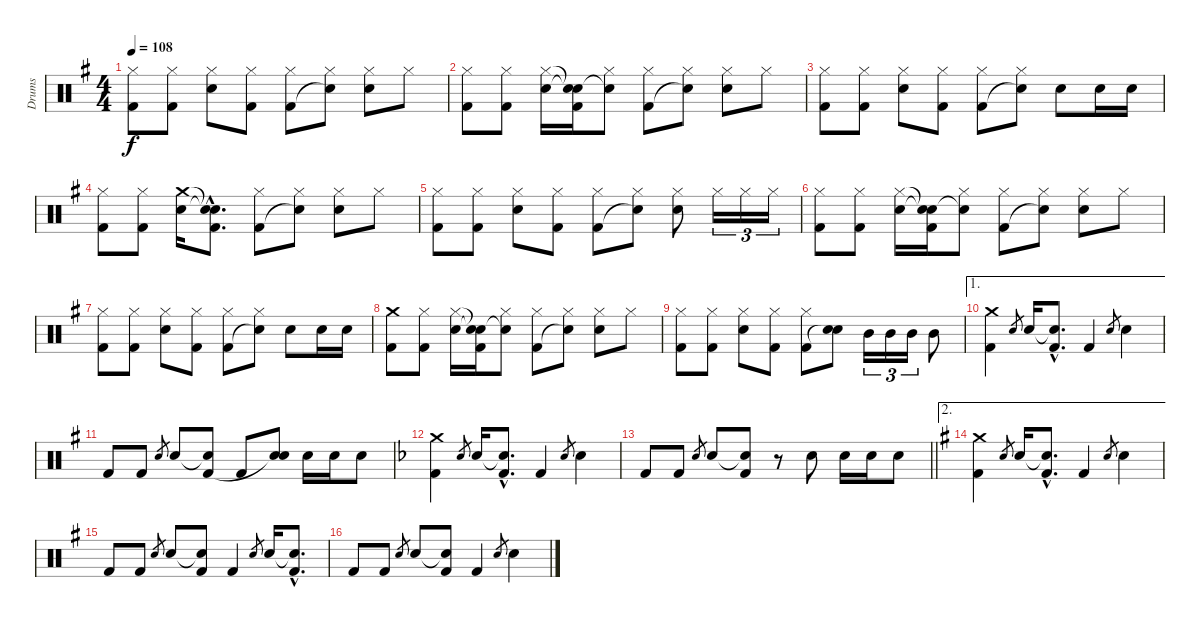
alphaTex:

\track ("Drums" "Drums") {instrument percussion}
\staff {score}
\articulation defaults
\ts (4 4)
\tempo 108
\clef neutral
\ks eminor
("Hi-Hat (closed)" "Kick (hit) 2").8{dy f} ("Hi-Hat (closed)" "Kick (hit) 2").8 ("Hi-Hat (closed)" "Electric Snare (hit)").8 ("Hi-Hat (closed)" "Kick (hit) 2").8 ("Hi-Hat (closed)" "Kick (hit) 2").8 ("Hi-Hat (closed)" "Snare (hit)"{t}).8 ("Hi-Hat (closed)" "Electric Snare (hit)").8 "Hi-Hat (closed)".8 |
("Hi-Hat (closed)" "Kick (hit) 2").8 ("Hi-Hat (closed)" "Kick (hit) 2").8 ("Hi-Hat (closed)" "Electric Snare (hit)").16 ("Snare (hit)"{t} "Snare (hit)"{t} "Kick (hit) 2").16 ("Hi-Hat (closed)" "Snare (hit)"{t}).8 ("Hi-Hat (closed)" "Kick (hit) 2").8 ("Hi-Hat (closed)" "Snare (hit)"{t}).8 ("Hi-Hat (closed)" "Electric Snare (hit)").8 "Hi-Hat (closed)".8 |
("Hi-Hat (closed)" "Kick (hit) 2").8 ("Hi-Hat (closed)" "Kick (hit) 2").8 ("Hi-Hat (closed)" "Electric Snare (hit)").8 ("Hi-Hat (closed)" "Kick (hit) 2").8 ("Hi-Hat (closed)" "Kick (hit) 2").8 ("Hi-Hat (closed)" "Snare (hit)"{t}).8 "Electric Snare (hit)".8 "Electric Snare (hit)".16 "Electric Snare (hit)".16 |
("Hi-Hat (closed)" "Kick (hit) 2").8 ("Hi-Hat (closed)" "Kick (hit) 2").8 ("Crash medium (hit)" "Electric Snare (hit)").16 ("Snare (hit)"{hac t} "Snare (hit)"{hac t} "Kick (hit) 2"{hac}).8{d} ("Hi-Hat (closed)" "Kick (hit) 2").8 ("Hi-Hat (closed)" "Snare (hit)"{t}).8 ("Hi-Hat (closed)" "Electric Snare (hit)").8 "Hi-Hat (closed)".8 |
("Hi-Hat (closed)" "Kick (hit) 2").8 ("Hi-Hat (closed)" "Kick (hit) 2").8 ("Hi-Hat (closed)" "Electric Snare (hit)").8 ("Hi-Hat (closed)" "Kick (hit) 2").8 ("Hi-Hat (closed)" "Kick (hit) 2").8 ("Hi-Hat (closed)" "Snare (hit)"{t}).8 ("Hi-Hat (closed)" "Electric Snare (hit)").8 "Hi-Hat (closed)".16{tu (3 2)} "Hi-Hat (closed)".16{tu (3 2)} "Hi-Hat (closed)".16{tu (3 2)} |
("Hi-Hat (closed)" "Kick (hit) 2").8 ("Hi-Hat (closed)" "Kick (hit) 2").8 ("Hi-Hat (closed)" "Electric Snare (hit)").16 ("Snare (hit)"{t} "Snare (hit)"{t} "Kick (hit) 2").16 ("Hi-Hat (closed)" "Snare (hit)"{t}).8 ("Hi-Hat (closed)" "Kick (hit) 2").8 ("Hi-Hat (closed)" "Snare (hit)"{t}).8 ("Hi-Hat (closed)" "Electric Snare (hit)").8 "Hi-Hat (closed)".8 |
("Hi-Hat (closed)" "Kick (hit) 2").8 ("Hi-Hat (closed)" "Kick (hit) 2").8 ("Hi-Hat (closed)" "Electric Snare (hit)").8 ("Hi-Hat (closed)" "Kick (hit) 2").8 ("Hi-Hat (closed)" "Kick (hit) 2").8 ("Hi-Hat (closed)" "Snare (hit)"{t}).8 "Electric Snare (hit)".8 "Electric Snare (hit)".16 "Electric Snare (hit)".16 |
("Crash medium (hit)" "Kick (hit) 2").8 ("Hi-Hat (closed)" "Kick (hit) 2").8 ("Hi-Hat (closed)" "Electric Snare (hit)").16 ("Snare (hit)"{t} "Snare (hit)"{t} "Kick (hit) 2").16 ("Hi-Hat (closed)" "Snare (hit)"{t}).8 ("Hi-Hat (closed)" "Kick (hit) 2").8 ("Hi-Hat (closed)" "Snare (hit)"{t}).8 ("Hi-Hat (closed)" "Electric Snare (hit)").8 "Hi-Hat (closed)".8 |
("Hi-Hat (closed)" "Kick (hit) 2").8 ("Hi-Hat (closed)" "Kick (hit) 2").8 ("Hi-Hat (closed)" "Electric Snare (hit)").8 ("Hi-Hat (closed)" "Kick (hit) 2").8 ("Hi-Hat (closed)" "Kick (hit) 2").8 ("Electric Snare (hit)" "Snare (hit)"{t}).8 "Mid Tom (hit)".16{tu (3 2)} "Mid Tom (hit)".16{tu (3 2)} "Mid Tom (hit)".16{tu (3 2)} "Mid Tom (hit)".8 |
\ae 1
("Crash medium (hit)" "Kick (hit) 2").4 "Electric Snare (hit)".8{gr} "Electric Snare (hit)".16 ("Snare (hit)"{hac t} "Kick (hit) 2"{hac}).8{d} "Kick (hit) 2".4 "Electric Snare (hit)".8{gr} "Electric Snare (hit)".4 |
"Kick (hit) 2".8 "Kick (hit) 2".8 "Electric Snare (hit)".8{gr} "Electric Snare (hit)".8 ("Snare (hit)"{t} "Kick (hit) 2").8 "Kick (hit) 2".8 ("Electric Snare (hit)" "Snare (hit)"{t}).8 "Electric Snare (hit)".16 "Electric Snare (hit)".16 "Electric Snare (hit)".8 |
\ks dminor
("Crash medium (hit)" "Kick (hit) 2").4 "Electric Snare (hit)".8{gr} "Electric Snare (hit)".16 ("Snare (hit)"{hac t} "Kick (hit) 2"{hac}).8{d} "Kick (hit) 2".4 "Electric Snare (hit)".8{gr} "Electric Snare (hit)".4 |
\barLineRight lightlight "Kick (hit) 2".8 "Kick (hit) 2".8 "Electric Snare (hit)".8{gr} "Electric Snare (hit)".8
("Snare (hit)"{t} "Kick (hit) 2").8 r.8 "Electric Snare (hit)".8 "Electric Snare (hit)".16 "Electric Snare (hit)".16 "Electric Snare (hit)".8 |
\ae 2
\ks eminor
("Crash medium (hit)" "Kick (hit) 2").4 "Electric Snare (hit)".8{gr} "Electric Snare (hit)".16 ("Snare (hit)"{hac t} "Kick (hit) 2"{hac}).8{d} "Kick (hit) 2".4 "Electric Snare (hit)".8{gr} "Electric Snare (hit)".4 |
"Kick (hit) 2".8 "Kick (hit) 2".8 "Electric Snare (hit)".8{gr} "Electric Snare (hit)".8 ("Snare (hit)"{t} "Kick (hit) 2").8 "Kick (hit) 2".4 "Electric Snare (hit)".8{gr} "Electric Snare (hit)".16 ("Snare (hit)"{hac t} "Kick (hit) 2"{hac}).8{d} |
"Kick (hit) 2".8 "Kick (hit) 2".8 "Electric Snare (hit)".8{gr} "Electric Snare (hit)".8 ("Snare (hit)"{t} "Kick (hit) 2").8 "Kick (hit) 2".4 "Electric Snare (hit)".8{gr} "Electric Snare (hit)".4
